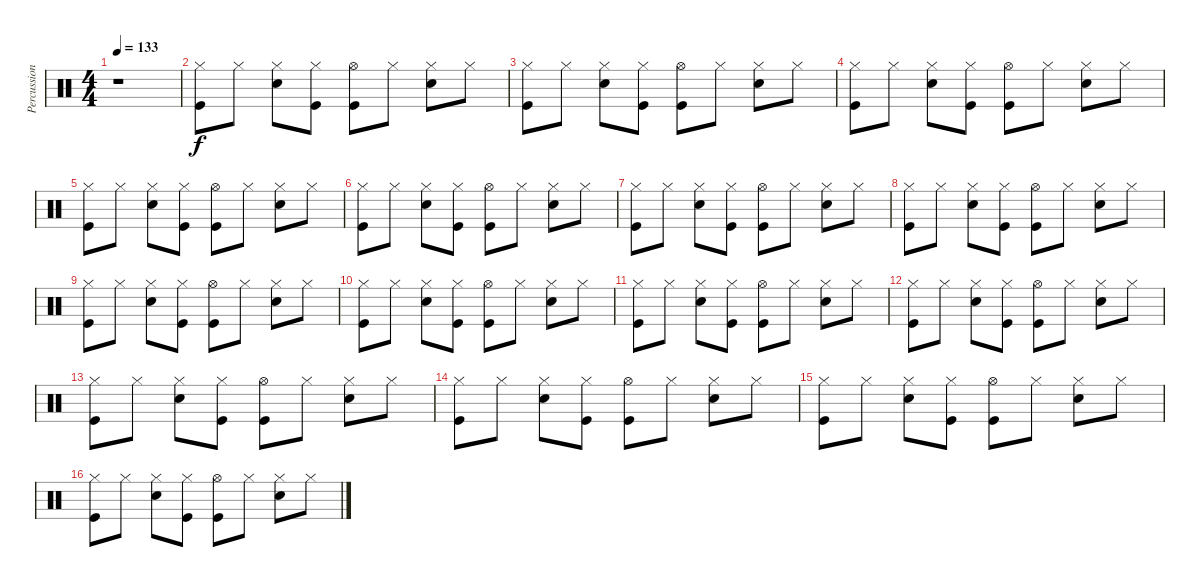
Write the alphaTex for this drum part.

\track ("Percussion" "Percussion") {instrument percussion}
\staff {score}
\articulation defaults
\ts (4 4)
\tempo 133
\clef neutral
\ks c
r.1{dy f} |
("Hi-Hat (closed)" "Kick (hit)").8 "Hi-Hat (closed)".8 ("Hi-Hat (closed)" "Snare (hit) 2").8 ("Hi-Hat (closed)" "Kick (hit)").8 ("Hi-Hat (open)" "Kick (hit)").8 "Hi-Hat (closed)".8 ("Hi-Hat (closed)" "Snare (hit) 2").8 "Hi-Hat (closed)".8 |
("Hi-Hat (closed)" "Kick (hit)").8 "Hi-Hat (closed)".8 ("Hi-Hat (closed)" "Snare (hit) 2").8 ("Hi-Hat (closed)" "Kick (hit)").8 ("Hi-Hat (open)" "Kick (hit)").8 "Hi-Hat (closed)".8 ("Hi-Hat (closed)" "Snare (hit) 2").8 "Hi-Hat (closed)".8 |
("Hi-Hat (closed)" "Kick (hit)").8 "Hi-Hat (closed)".8 ("Hi-Hat (closed)" "Snare (hit) 2").8 ("Hi-Hat (closed)" "Kick (hit)").8 ("Hi-Hat (open)" "Kick (hit)").8 "Hi-Hat (closed)".8 ("Hi-Hat (closed)" "Snare (hit) 2").8 "Hi-Hat (closed)".8 |
("Hi-Hat (closed)" "Kick (hit)").8 "Hi-Hat (closed)".8 ("Hi-Hat (closed)" "Snare (hit) 2").8 ("Hi-Hat (closed)" "Kick (hit)").8 ("Hi-Hat (open)" "Kick (hit)").8 "Hi-Hat (closed)".8 ("Hi-Hat (closed)" "Snare (hit) 2").8 "Hi-Hat (closed)".8 |
("Hi-Hat (closed)" "Kick (hit)").8 "Hi-Hat (closed)".8 ("Hi-Hat (closed)" "Snare (hit) 2").8 ("Hi-Hat (closed)" "Kick (hit)").8 ("Hi-Hat (open)" "Kick (hit)").8 "Hi-Hat (closed)".8 ("Hi-Hat (closed)" "Snare (hit) 2").8 "Hi-Hat (closed)".8 |
("Hi-Hat (closed)" "Kick (hit)").8 "Hi-Hat (closed)".8 ("Hi-Hat (closed)" "Snare (hit) 2").8 ("Hi-Hat (closed)" "Kick (hit)").8 ("Hi-Hat (open)" "Kick (hit)").8 "Hi-Hat (closed)".8 ("Hi-Hat (closed)" "Snare (hit) 2").8 "Hi-Hat (closed)".8 |
("Hi-Hat (closed)" "Kick (hit)").8 "Hi-Hat (closed)".8 ("Hi-Hat (closed)" "Snare (hit) 2").8 ("Hi-Hat (closed)" "Kick (hit)").8 ("Hi-Hat (open)" "Kick (hit)").8 "Hi-Hat (closed)".8 ("Hi-Hat (closed)" "Snare (hit) 2").8 "Hi-Hat (closed)".8 |
("Hi-Hat (closed)" "Kick (hit)").8 "Hi-Hat (closed)".8 ("Hi-Hat (closed)" "Snare (hit) 2").8 ("Hi-Hat (closed)" "Kick (hit)").8 ("Hi-Hat (open)" "Kick (hit)").8 "Hi-Hat (closed)".8 ("Hi-Hat (closed)" "Snare (hit) 2").8 "Hi-Hat (closed)".8 |
("Hi-Hat (closed)" "Kick (hit)").8 "Hi-Hat (closed)".8 ("Hi-Hat (closed)" "Snare (hit) 2").8 ("Hi-Hat (closed)" "Kick (hit)").8 ("Hi-Hat (open)" "Kick (hit)").8 "Hi-Hat (closed)".8 ("Hi-Hat (closed)" "Snare (hit) 2").8 "Hi-Hat (closed)".8 |
("Hi-Hat (closed)" "Kick (hit)").8 "Hi-Hat (closed)".8 ("Hi-Hat (closed)" "Snare (hit) 2").8 ("Hi-Hat (closed)" "Kick (hit)").8 ("Hi-Hat (open)" "Kick (hit)").8 "Hi-Hat (closed)".8 ("Hi-Hat (closed)" "Snare (hit) 2").8 "Hi-Hat (closed)".8 |
("Hi-Hat (closed)" "Kick (hit)").8 "Hi-Hat (closed)".8 ("Hi-Hat (closed)" "Snare (hit) 2").8 ("Hi-Hat (closed)" "Kick (hit)").8 ("Hi-Hat (open)" "Kick (hit)").8 "Hi-Hat (closed)".8 ("Hi-Hat (closed)" "Snare (hit) 2").8 "Hi-Hat (closed)".8 |
("Hi-Hat (closed)" "Kick (hit)").8 "Hi-Hat (closed)".8 ("Hi-Hat (closed)" "Snare (hit) 2").8 ("Hi-Hat (closed)" "Kick (hit)").8 ("Hi-Hat (open)" "Kick (hit)").8 "Hi-Hat (closed)".8 ("Hi-Hat (closed)" "Snare (hit) 2").8 "Hi-Hat (closed)".8 |
("Hi-Hat (closed)" "Kick (hit)").8 "Hi-Hat (closed)".8 ("Hi-Hat (closed)" "Snare (hit) 2").8 ("Hi-Hat (closed)" "Kick (hit)").8 ("Hi-Hat (open)" "Kick (hit)").8 "Hi-Hat (closed)".8 ("Hi-Hat (closed)" "Snare (hit) 2").8 "Hi-Hat (closed)".8 |
("Hi-Hat (closed)" "Kick (hit)").8 "Hi-Hat (closed)".8 ("Hi-Hat (closed)" "Snare (hit) 2").8 ("Hi-Hat (closed)" "Kick (hit)").8 ("Hi-Hat (open)" "Kick (hit)").8 "Hi-Hat (closed)".8 ("Hi-Hat (closed)" "Snare (hit) 2").8 "Hi-Hat (closed)".8 |
("Hi-Hat (closed)" "Kick (hit)").8 "Hi-Hat (closed)".8 ("Hi-Hat (closed)" "Snare (hit) 2").8 ("Hi-Hat (closed)" "Kick (hit)").8 ("Hi-Hat (open)" "Kick (hit)").8 "Hi-Hat (closed)".8 ("Hi-Hat (closed)" "Snare (hit) 2").8 "Hi-Hat (closed)".8
